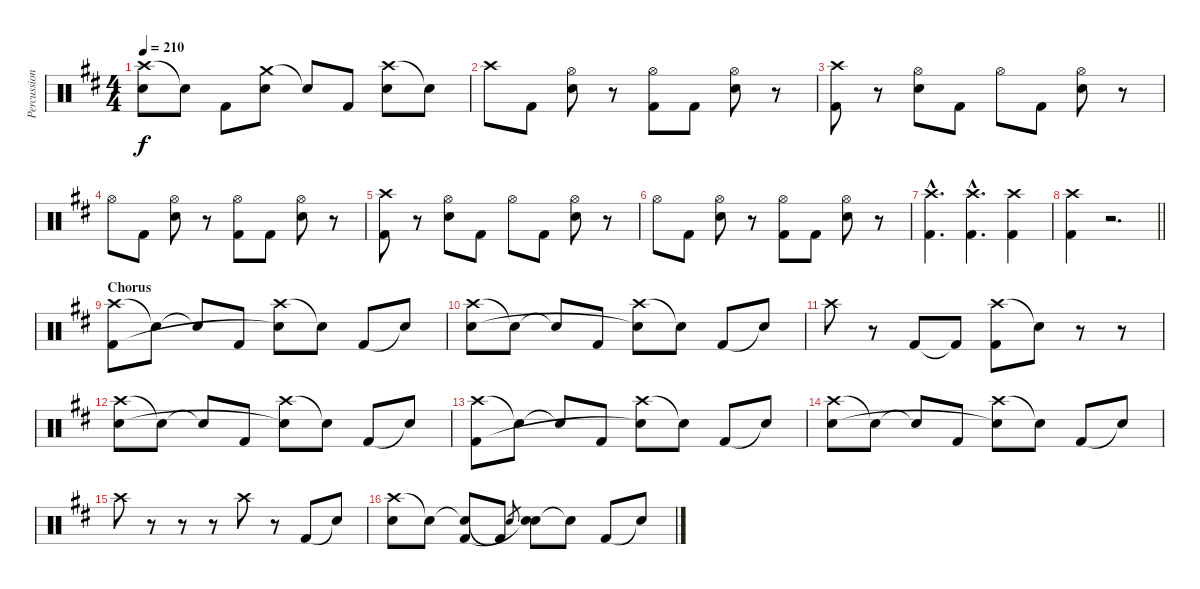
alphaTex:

\track ("Percussion" "Percussion") {instrument percussion}
\staff {score}
\articulation defaults
\ts (4 4)
\tempo 210
\clef neutral
\ks d
("Crash high (hit)" "Electric Snare (hit)").8{dy f} "Snare (hit)"{t}.8 "Kick (hit) 2".8 ("Crash medium (hit)" "Electric Snare (hit)").8 "Snare (hit)"{t}.8 "Kick (hit) 2".8 ("Crash high (hit)" "Electric Snare (hit)").8 "Snare (hit)"{t}.8 |
"Crash high (hit)".8 "Kick (hit) 2".8 ("Hi-Hat (open)" "Electric Snare (hit)").8 r.8 ("Hi-Hat (open)" "Kick (hit) 2").8 "Kick (hit) 2".8 ("Hi-Hat (open)" "Electric Snare (hit)").8 r.8 |
("Crash high (hit)" "Kick (hit) 2").8 r.8 ("Hi-Hat (open)" "Electric Snare (hit)").8 "Kick (hit) 2".8 "Hi-Hat (open)".8 "Kick (hit) 2".8 ("Hi-Hat (open)" "Electric Snare (hit)").8 r.8 |
"Hi-Hat (open)".8 "Kick (hit) 2".8 ("Hi-Hat (open)" "Electric Snare (hit)").8 r.8 ("Hi-Hat (open)" "Kick (hit) 2").8 "Kick (hit) 2".8 ("Hi-Hat (open)" "Electric Snare (hit)").8 r.8 |
("Crash high (hit)" "Kick (hit) 2").8 r.8 ("Hi-Hat (open)" "Electric Snare (hit)").8 "Kick (hit) 2".8 "Hi-Hat (open)".8 "Kick (hit) 2".8 ("Hi-Hat (open)" "Electric Snare (hit)").8 r.8 |
"Hi-Hat (open)".8 "Kick (hit) 2".8 ("Hi-Hat (open)" "Electric Snare (hit)").8 r.8 ("Hi-Hat (open)" "Kick (hit) 2").8 "Kick (hit) 2".8 ("Hi-Hat (open)" "Electric Snare (hit)").8 r.8 |
("Crash high (hit)"{hac} "Kick (hit) 2"{hac}).4{d} ("Crash high (hit)"{hac} "Kick (hit) 2"{hac}).4{d} ("Crash high (hit)" "Kick (hit) 2").4 |
\barLineRight lightlight
("Crash high (hit)" "Kick (hit) 2").4 r.2{d} |
\section ("" "Chorus")
("Crash high (hit)" "Kick (hit) 2").8 "Snare (hit)"{t}.8 "Snare (hit)"{t}.8 "Kick (hit) 2".8 ("Crash high (hit)" "Snare (hit)"{t}).8 "Snare (hit)"{t}.8 "Kick (hit) 2".8 "Snare (hit)"{t}.8 |
("Crash high (hit)" "Electric Snare (hit)").8 "Snare (hit)"{t}.8 "Snare (hit)"{t}.8 "Kick (hit) 2".8 ("Crash high (hit)" "Snare (hit)"{t}).8 "Snare (hit)"{t}.8 "Kick (hit) 2".8 "Snare (hit)"{t}.8 |
"Crash high (hit)".8 r.8 "Kick (hit) 2".8 "Kick (hit) 2"{t}.8 ("Crash high (hit)" "Kick (hit) 2").8 "Snare (hit)"{t}.8 r.8 r.8 |
("Crash high (hit)" "Electric Snare (hit)").8 "Snare (hit)"{t}.8 "Snare (hit)"{t}.8 "Kick (hit) 2".8 ("Crash high (hit)" "Snare (hit)"{t}).8 "Snare (hit)"{t}.8 "Kick (hit) 2".8 "Snare (hit)"{t}.8 |
("Crash high (hit)" "Kick (hit) 2").8 "Snare (hit)"{t}.8 "Snare (hit)"{t}.8 "Kick (hit) 2".8 ("Crash high (hit)" "Snare (hit)"{t}).8 "Snare (hit)"{t}.8 "Kick (hit) 2".8 "Snare (hit)"{t}.8 |
("Crash high (hit)" "Electric Snare (hit)").8 "Snare (hit)"{t}.8 "Snare (hit)"{t}.8 "Kick (hit) 2".8 ("Crash high (hit)" "Snare (hit)"{t}).8 "Snare (hit)"{t}.8 "Kick (hit) 2".8 "Snare (hit)"{t}.8 |
"Crash high (hit)".8 r.8 r.8 r.8 "Crash high (hit)".8 r.8 "Kick (hit) 2".8 "Snare (hit)"{t}.8 |
("Crash high (hit)" "Electric Snare (hit)").8 "Snare (hit)"{t}.8 ("Snare (hit)"{t} "Kick (hit) 2").8 "Kick (hit) 2"{t}.8 "Electric Snare (hit)"{h}.8{gr} ("Electric Snare (hit)" "Snare (hit)"{t}).8 "Snare (hit)"{t}.8 "Kick (hit) 2".8 "Snare (hit)"{t}.8
